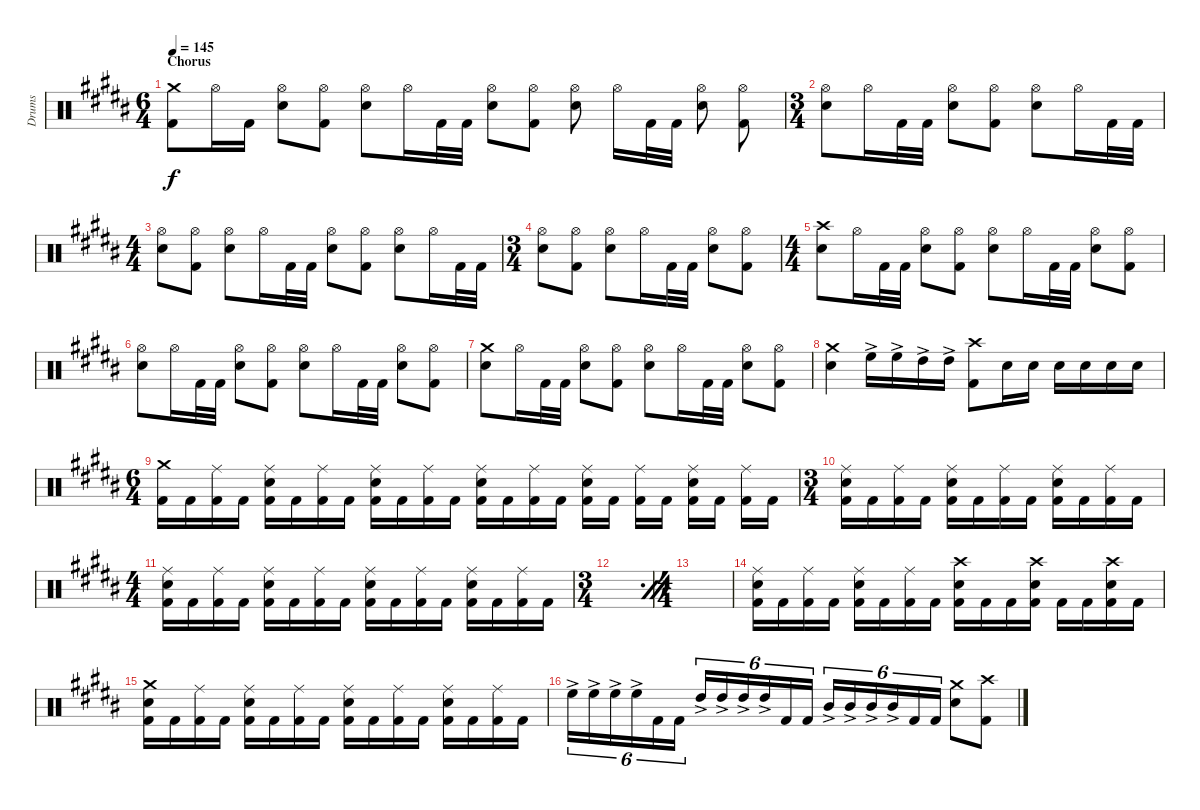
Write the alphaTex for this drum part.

\defaultSystemsLayout 4
\bracketExtendMode groupsimilarinstruments
\otherSystemsTrackNameOrientation horizontal
\track ("Drumkit" "Drums") {multiBarRest instrument percussion}
\staff {score}
\articulation defaults
\ts (6 4)
\beaming (8 2 2 2 2)
\section ("" "Chorus")
\tempo 145
\clef neutral
\ks b
("Crash medium (hit)"{acc forcenatural} "Kick (hit) 2"{acc forcenatural}).8{dy f} "Hi-Hat (open)"{acc forcenatural}.16 "Kick (hit) 2"{acc forcenatural}.16 ("Hi-Hat (open)"{acc forcenatural} "Snare (hit) 2"{acc forcenatural}).8 ("Kick (hit) 2"{acc forcenatural} "Hi-Hat (open)"{acc forcenatural}).8 ("Hi-Hat (open)"{acc forcenatural} "Snare (hit) 2"{acc forcenatural}).8 "Hi-Hat (open)"{acc forcenatural}.16 "Kick (hit) 2"{acc forcenatural}.32 "Kick (hit) 2"{acc forcenatural}.32 ("Hi-Hat (open)"{acc forcenatural} "Snare (hit) 2"{acc forcenatural}).8 ("Kick (hit) 2"{acc forcenatural} "Hi-Hat (open)"{acc forcenatural}).8 ("Hi-Hat (open)"{acc forcenatural} "Snare (hit) 2"{acc forcenatural}).8 "Hi-Hat (open)"{acc forcenatural}.16 "Kick (hit) 2"{acc forcenatural}.32 "Kick (hit) 2"{acc forcenatural}.32 ("Hi-Hat (open)"{acc forcenatural} "Snare (hit) 2"{acc forcenatural}).8 ("Kick (hit) 2"{acc forcenatural} "Hi-Hat (open)"{acc forcenatural}).8 |
\ts (3 4)
\beaming (8 2 2 2 2)
("Hi-Hat (open)"{acc forcenatural} "Snare (hit) 2"{acc forcenatural}).8 "Hi-Hat (open)"{acc forcenatural}.16 "Kick (hit) 2"{acc forcenatural}.32 "Kick (hit) 2"{acc forcenatural}.32 ("Hi-Hat (open)"{acc forcenatural} "Snare (hit) 2"{acc forcenatural}).8 ("Kick (hit) 2"{acc forcenatural} "Hi-Hat (open)"{acc forcenatural}).8 ("Hi-Hat (open)"{acc forcenatural} "Snare (hit) 2"{acc forcenatural}).8 "Hi-Hat (open)"{acc forcenatural}.16 "Kick (hit) 2"{acc forcenatural}.32 "Kick (hit) 2"{acc forcenatural}.32 |
\ts (4 4)
\beaming (8 2 2 2 2)
("Hi-Hat (open)"{acc forcenatural} "Snare (hit) 2"{acc forcenatural}).8 ("Kick (hit) 2"{acc forcenatural} "Hi-Hat (open)"{acc forcenatural}).8 ("Hi-Hat (open)"{acc forcenatural} "Snare (hit) 2"{acc forcenatural}).8 "Hi-Hat (open)"{acc forcenatural}.16 "Kick (hit) 2"{acc forcenatural}.32 "Kick (hit) 2"{acc forcenatural}.32 ("Hi-Hat (open)"{acc forcenatural} "Snare (hit) 2"{acc forcenatural}).8 ("Kick (hit) 2"{acc forcenatural} "Hi-Hat (open)"{acc forcenatural}).8 ("Hi-Hat (open)"{acc forcenatural} "Snare (hit) 2"{acc forcenatural}).8 "Hi-Hat (open)"{acc forcenatural}.16 "Kick (hit) 2"{acc forcenatural}.32 "Kick (hit) 2"{acc forcenatural}.32 |
\ts (3 4)
\beaming (8 2 2 2 2)
("Hi-Hat (open)"{acc forcenatural} "Snare (hit) 2"{acc forcenatural}).8 ("Kick (hit) 2"{acc forcenatural} "Hi-Hat (open)"{acc forcenatural}).8 ("Hi-Hat (open)"{acc forcenatural} "Snare (hit) 2"{acc forcenatural}).8 "Hi-Hat (open)"{acc forcenatural}.16 "Kick (hit) 2"{acc forcenatural}.32 "Kick (hit) 2"{acc forcenatural}.32 ("Hi-Hat (open)"{acc forcenatural} "Snare (hit) 2"{acc forcenatural}).8 ("Kick (hit) 2"{acc forcenatural} "Hi-Hat (open)"{acc forcenatural}).8 |
\ts (4 4)
\beaming (8 2 2 2 2)
("Snare (hit) 2"{acc forcenatural} "Crash high (hit)"{acc forcenatural}).8 "Hi-Hat (open)"{acc forcenatural}.16 "Kick (hit) 2"{acc forcenatural}.32 "Kick (hit) 2"{acc forcenatural}.32 ("Hi-Hat (open)"{acc forcenatural} "Snare (hit) 2"{acc forcenatural}).8 ("Kick (hit) 2"{acc forcenatural} "Hi-Hat (open)"{acc forcenatural}).8 ("Hi-Hat (open)"{acc forcenatural} "Snare (hit) 2"{acc forcenatural}).8 "Hi-Hat (open)"{acc forcenatural}.16 "Kick (hit) 2"{acc forcenatural}.32 "Kick (hit) 2"{acc forcenatural}.32 ("Hi-Hat (open)"{acc forcenatural} "Snare (hit) 2"{acc forcenatural}).8 ("Kick (hit) 2"{acc forcenatural} "Hi-Hat (open)"{acc forcenatural}).8 |
("Hi-Hat (open)"{acc forcenatural} "Snare (hit) 2"{acc forcenatural}).8 "Hi-Hat (open)"{acc forcenatural}.16 "Kick (hit) 2"{acc forcenatural}.32 "Kick (hit) 2"{acc forcenatural}.32 ("Hi-Hat (open)"{acc forcenatural} "Snare (hit) 2"{acc forcenatural}).8 ("Kick (hit) 2"{acc forcenatural} "Hi-Hat (open)"{acc forcenatural}).8 ("Hi-Hat (open)"{acc forcenatural} "Snare (hit) 2"{acc forcenatural}).8 "Hi-Hat (open)"{acc forcenatural}.16 "Kick (hit) 2"{acc forcenatural}.32 "Kick (hit) 2"{acc forcenatural}.32 ("Hi-Hat (open)"{acc forcenatural} "Snare (hit) 2"{acc forcenatural}).8 ("Kick (hit) 2"{acc forcenatural} "Hi-Hat (open)"{acc forcenatural}).8 |
("Snare (hit) 2"{acc forcenatural} "Crash medium (hit)"{acc forcenatural}).8 "Hi-Hat (open)"{acc forcenatural}.16 "Kick (hit) 2"{acc forcenatural}.32 "Kick (hit) 2"{acc forcenatural}.32 ("Hi-Hat (open)"{acc forcenatural} "Snare (hit) 2"{acc forcenatural}).8 ("Kick (hit) 2"{acc forcenatural} "Hi-Hat (open)"{acc forcenatural}).8 ("Hi-Hat (open)"{acc forcenatural} "Snare (hit) 2"{acc forcenatural}).8 "Hi-Hat (open)"{acc forcenatural}.16 "Kick (hit) 2"{acc forcenatural}.32 "Kick (hit) 2"{acc forcenatural}.32 ("Hi-Hat (open)"{acc forcenatural} "Snare (hit) 2"{acc forcenatural}).8 ("Kick (hit) 2"{acc forcenatural} "Hi-Hat (open)"{acc forcenatural}).8 |
("Snare (hit) 2"{acc forcenatural} "Crash medium (hit)"{acc forcenatural}).4 "High Floor Tom (hit)"{ac acc forcenatural}.16 "High Floor Tom (hit)"{ac acc forcenatural}.16 "High Tom (hit)"{ac acc forcenatural}.16 "High Tom (hit)"{ac acc forcenatural}.16 ("Kick (hit) 2"{acc forcenatural} "Crash high (hit)"{acc forcenatural}).8 "Snare (hit) 2"{acc forcenatural}.16 "Snare (hit) 2"{acc forcenatural}.16 "Snare (hit) 2"{acc forcenatural}.16 "Snare (hit) 2"{acc forcenatural}.16 "Snare (hit) 2"{acc forcenatural}.16 "Snare (hit) 2"{acc forcenatural}.16 |
\ts (6 4)
\beaming (8 2 2 2 2)
("Kick (hit) 2"{acc forcenatural} "Crash medium (hit)"{acc forcenatural}).16 "Kick (hit) 2"{acc forcenatural}.16 ("Kick (hit) 2"{acc forcenatural} "Ride (middle)"{acc forcenatural}).16 "Kick (hit) 2"{acc forcenatural}.16 ("Kick (hit) 2"{acc forcenatural} "Snare (hit) 2"{acc forcenatural} "Ride (middle)"{acc forcenatural}).16 "Kick (hit) 2"{acc forcenatural}.16 ("Kick (hit) 2"{acc forcenatural} "Ride (middle)"{acc forcenatural}).16 "Kick (hit) 2"{acc forcenatural}.16 ("Kick (hit) 2"{acc forcenatural} "Snare (hit) 2"{acc forcenatural} "Ride (middle)"{acc forcenatural}).16 "Kick (hit) 2"{acc forcenatural}.16 ("Kick (hit) 2"{acc forcenatural} "Ride (middle)"{acc forcenatural}).16 "Kick (hit) 2"{acc forcenatural}.16 ("Kick (hit) 2"{acc forcenatural} "Snare (hit) 2"{acc forcenatural} "Ride (middle)"{acc forcenatural}).16 "Kick (hit) 2"{acc forcenatural}.16 ("Kick (hit) 2"{acc forcenatural} "Ride (middle)"{acc forcenatural}).16 "Kick (hit) 2"{acc forcenatural}.16 ("Kick (hit) 2"{acc forcenatural} "Snare (hit) 2"{acc forcenatural} "Ride (middle)"{acc forcenatural}).16 "Kick (hit) 2"{acc forcenatural}.16 ("Kick (hit) 2"{acc forcenatural} "Ride (middle)"{acc forcenatural}).16 "Kick (hit) 2"{acc forcenatural}.16 ("Kick (hit) 2"{acc forcenatural} "Snare (hit) 2"{acc forcenatural} "Ride (middle)"{acc forcenatural}).16 "Kick (hit) 2"{acc forcenatural}.16 ("Kick (hit) 2"{acc forcenatural} "Ride (middle)"{acc forcenatural}).16 "Kick (hit) 2"{acc forcenatural}.16 |
\ts (3 4)
\beaming (8 2 2 2 2)
("Kick (hit) 2"{acc forcenatural} "Snare (hit) 2"{acc forcenatural} "Ride (middle)"{acc forcenatural}).16 "Kick (hit) 2"{acc forcenatural}.16 ("Kick (hit) 2"{acc forcenatural} "Ride (middle)"{acc forcenatural}).16 "Kick (hit) 2"{acc forcenatural}.16 ("Kick (hit) 2"{acc forcenatural} "Snare (hit) 2"{acc forcenatural} "Ride (middle)"{acc forcenatural}).16 "Kick (hit) 2"{acc forcenatural}.16 ("Kick (hit) 2"{acc forcenatural} "Ride (middle)"{acc forcenatural}).16 "Kick (hit) 2"{acc forcenatural}.16 ("Kick (hit) 2"{acc forcenatural} "Snare (hit) 2"{acc forcenatural} "Ride (middle)"{acc forcenatural}).16 "Kick (hit) 2"{acc forcenatural}.16 ("Kick (hit) 2"{acc forcenatural} "Ride (middle)"{acc forcenatural}).16 "Kick (hit) 2"{acc forcenatural}.16 |
\ts (4 4)
\beaming (8 2 2 2 2)
("Kick (hit) 2"{acc forcenatural} "Snare (hit) 2"{acc forcenatural} "Ride (middle)"{acc forcenatural}).16 "Kick (hit) 2"{acc forcenatural}.16 ("Kick (hit) 2"{acc forcenatural} "Ride (middle)"{acc forcenatural}).16 "Kick (hit) 2"{acc forcenatural}.16 ("Kick (hit) 2"{acc forcenatural} "Snare (hit) 2"{acc forcenatural} "Ride (middle)"{acc forcenatural}).16 "Kick (hit) 2"{acc forcenatural}.16 ("Kick (hit) 2"{acc forcenatural} "Ride (middle)"{acc forcenatural}).16 "Kick (hit) 2"{acc forcenatural}.16 ("Kick (hit) 2"{acc forcenatural} "Snare (hit) 2"{acc forcenatural} "Ride (middle)"{acc forcenatural}).16 "Kick (hit) 2"{acc forcenatural}.16 ("Kick (hit) 2"{acc forcenatural} "Ride (middle)"{acc forcenatural}).16 "Kick (hit) 2"{acc forcenatural}.16 ("Kick (hit) 2"{acc forcenatural} "Snare (hit) 2"{acc forcenatural} "Ride (middle)"{acc forcenatural}).16 "Kick (hit) 2"{acc forcenatural}.16 ("Kick (hit) 2"{acc forcenatural} "Ride (middle)"{acc forcenatural}).16 "Kick (hit) 2"{acc forcenatural}.16 |
\ts (3 4)
\beaming (8 2 2 2 2)
\simile firstofdouble
|
\ts (4 4)
\beaming (8 2 2 2 2)
\simile secondofdouble
|
\simile none
("Kick (hit) 2"{acc forcenatural} "Snare (hit) 2"{acc forcenatural} "Ride (middle)"{acc forcenatural}).16 "Kick (hit) 2"{acc forcenatural}.16 ("Kick (hit) 2"{acc forcenatural} "Ride (middle)"{acc forcenatural}).16 "Kick (hit) 2"{acc forcenatural}.16 ("Kick (hit) 2"{acc forcenatural} "Snare (hit) 2"{acc forcenatural} "Ride (middle)"{acc forcenatural}).16 "Kick (hit) 2"{acc forcenatural}.16 ("Kick (hit) 2"{acc forcenatural} "Ride (middle)"{acc forcenatural}).16 "Kick (hit) 2"{acc forcenatural}.16 ("Kick (hit) 2"{acc forcenatural} "Snare (hit) 2"{acc forcenatural} "Crash high (hit)"{acc forcenatural}).16 "Kick (hit) 2"{acc forcenatural}.16 "Kick (hit) 2"{acc forcenatural}.16 ("Kick (hit) 2"{acc forcenatural} "Snare (hit) 2"{acc forcenatural} "Crash high (hit)"{acc forcenatural}).16 "Kick (hit) 2"{acc forcenatural}.16 "Kick (hit) 2"{acc forcenatural}.16 ("Kick (hit) 2"{acc forcenatural} "Snare (hit) 2"{acc forcenatural} "Crash high (hit)"{acc forcenatural}).16 "Kick (hit) 2"{acc forcenatural}.16 |
("Kick (hit) 2"{acc forcenatural} "Crash medium (hit)"{acc forcenatural} "Snare (hit) 2"{acc forcenatural}).16 "Kick (hit) 2"{acc forcenatural}.16 ("Kick (hit) 2"{acc forcenatural} "Ride (middle)"{acc forcenatural}).16 "Kick (hit) 2"{acc forcenatural}.16 ("Kick (hit) 2"{acc forcenatural} "Snare (hit) 2"{acc forcenatural} "Ride (middle)"{acc forcenatural}).16 "Kick (hit) 2"{acc forcenatural}.16 ("Kick (hit) 2"{acc forcenatural} "Ride (middle)"{acc forcenatural}).16 "Kick (hit) 2"{acc forcenatural}.16 ("Kick (hit) 2"{acc forcenatural} "Snare (hit) 2"{acc forcenatural} "Ride (middle)"{acc forcenatural}).16 "Kick (hit) 2"{acc forcenatural}.16 ("Kick (hit) 2"{acc forcenatural} "Ride (middle)"{acc forcenatural}).16 "Kick (hit) 2"{acc forcenatural}.16 ("Kick (hit) 2"{acc forcenatural} "Snare (hit) 2"{acc forcenatural} "Ride (middle)"{acc forcenatural}).16 "Kick (hit) 2"{acc forcenatural}.16 ("Kick (hit) 2"{acc forcenatural} "Ride (middle)"{acc forcenatural}).16 "Kick (hit) 2"{acc forcenatural}.16 |
"High Floor Tom (hit)"{ac acc forcenatural}.16{tu (6 4)} "High Floor Tom (hit)"{ac acc forcenatural}.16{tu (6 4)} "High Floor Tom (hit)"{ac acc forcenatural}.16{tu (6 4)} "High Floor Tom (hit)"{ac acc forcenatural}.16{tu (6 4)} "Kick (hit) 2"{acc forcenatural}.16{tu (6 4)} "Kick (hit) 2"{acc forcenatural}.16{tu (6 4)} "High Tom (hit)"{ac acc forcenatural}.16{tu (6 4)} "High Tom (hit)"{ac acc forcenatural}.16{tu (6 4)} "High Tom (hit)"{ac acc forcenatural}.16{tu (6 4)} "High Tom (hit)"{ac acc forcenatural}.16{tu (6 4)} "Kick (hit) 2"{acc forcenatural}.16{tu (6 4)} "Kick (hit) 2"{acc forcenatural}.16{tu (6 4)} "Mid Tom (hit)"{ac acc forcenatural}.16{tu (6 4)} "Mid Tom (hit)"{ac acc forcenatural}.16{tu (6 4)} "Mid Tom (hit)"{ac acc forcenatural}.16{tu (6 4)} "Mid Tom (hit)"{ac acc forcenatural}.16{tu (6 4)} "Kick (hit) 2"{acc forcenatural}.16{tu (6 4)} "Kick (hit) 2"{acc forcenatural}.16{tu (6 4)} ("Snare (hit) 2"{acc forcenatural} "Crash medium (hit)"{acc forcenatural}).8 ("Crash high (hit)"{acc forcenatural} "Kick (hit) 2"{acc forcenatural}).8
